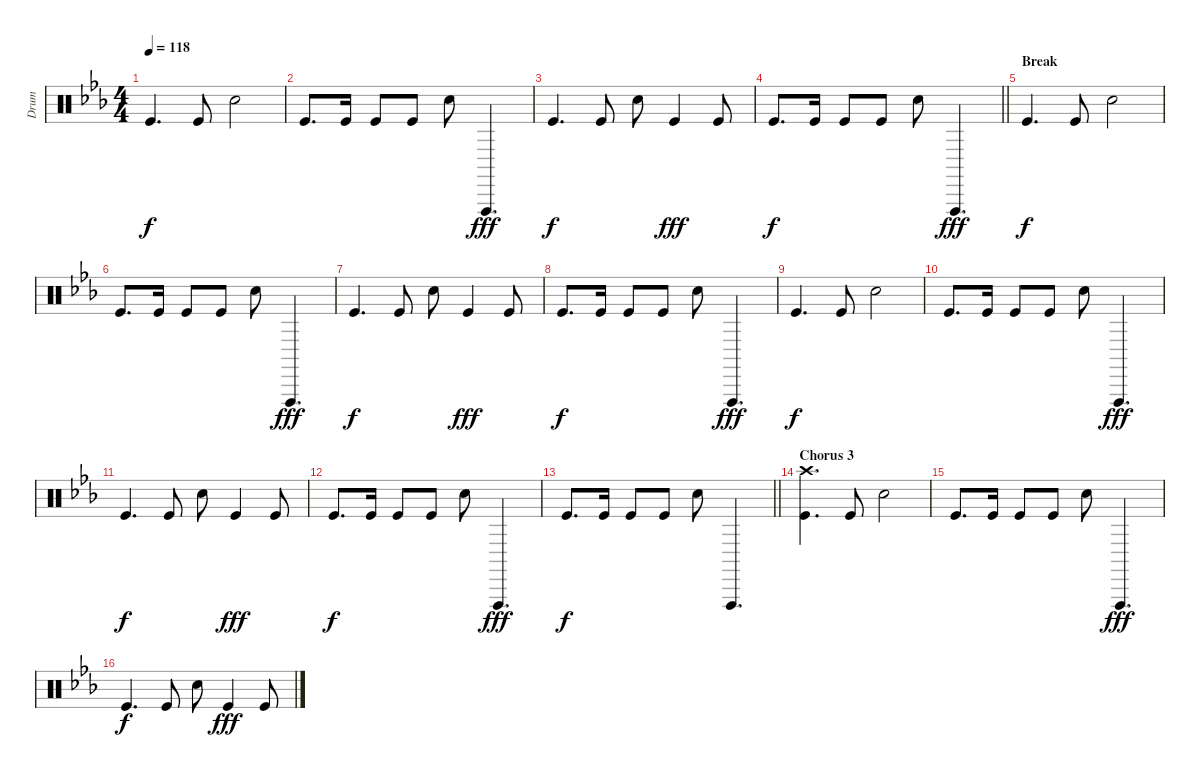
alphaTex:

\track ("Drum" "Drum") {instrument percussion}
\staff {score}
\articulation defaults
\ts (4 4)
\tempo 118
\clef neutral
\ks eb "Kick (hit)".4{d dy f} "Kick (hit)".8 "Hand Clap (hit)".2
|
"Kick (hit)".8{d} "Kick (hit)".16 "Kick (hit)".8 "Kick (hit)".8 "Hand Clap (hit)".8 "Vibraslap (hit)".4{d dy fff} |
"Kick (hit)".4{d dy f} "Kick (hit)".8 "Hand Clap (hit)".8 "Kick (hit)".4{dy fff} "Kick (hit)".8 |
\barLineRight lightlight "Kick (hit)".8{d dy f} "Kick (hit)".16 "Kick (hit)".8 "Kick (hit)".8 "Hand Clap (hit)".8 "Vibraslap (hit)".4{d dy fff}
|
\section ("" "Break")
"Kick (hit)".4{d dy f} "Kick (hit)".8 "Hand Clap (hit)".2 |
"Kick (hit)".8{d} "Kick (hit)".16 "Kick (hit)".8 "Kick (hit)".8 "Hand Clap (hit)".8 "Vibraslap (hit)".4{d dy fff} |
"Kick (hit)".4{d dy f} "Kick (hit)".8 "Hand Clap (hit)".8 "Kick (hit)".4{dy fff} "Kick (hit)".8 |
"Kick (hit)".8{d dy f} "Kick (hit)".16 "Kick (hit)".8 "Kick (hit)".8 "Hand Clap (hit)".8 "Vibraslap (hit)".4{d dy fff} |
"Kick (hit)".4{d dy f} "Kick (hit)".8 "Hand Clap (hit)".2 |
"Kick (hit)".8{d} "Kick (hit)".16 "Kick (hit)".8 "Kick (hit)".8 "Hand Clap (hit)".8 "Vibraslap (hit)".4{d dy fff} |
"Kick (hit)".4{d dy f} "Kick (hit)".8 "Hand Clap (hit)".8 "Kick (hit)".4{dy fff} "Kick (hit)".8 |
"Kick (hit)".8{d dy f} "Kick (hit)".16 "Kick (hit)".8 "Kick (hit)".8 "Hand Clap (hit)".8 "Vibraslap (hit)".4{d dy fff} |
\barLineRight lightlight "Kick (hit)".8{d dy f} "Kick (hit)".16 "Kick (hit)".8 "Kick (hit)".8 "Hand Clap (hit)".8 "Vibraslap (hit)".4{d}
|
\section ("" "Chorus 3")
("Crash high (hit)" "Kick (hit)").4{d} "Kick (hit)".8 "Hand Clap (hit)".2 |
"Kick (hit)".8{d} "Kick (hit)".16 "Kick (hit)".8 "Kick (hit)".8 "Hand Clap (hit)".8 "Vibraslap (hit)".4{d dy fff} |
"Kick (hit)".4{d dy f} "Kick (hit)".8 "Hand Clap (hit)".8 "Kick (hit)".4{dy fff} "Kick (hit)".8
